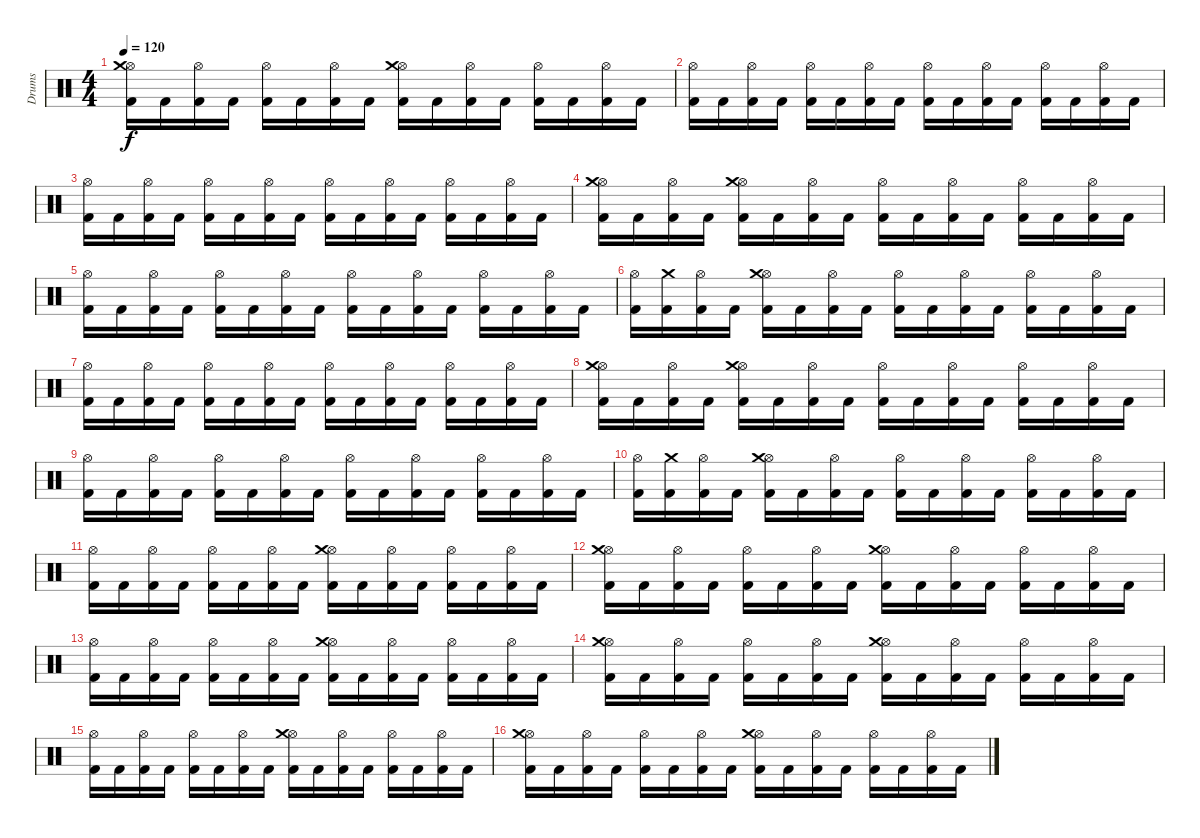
\track ("Drums" "Drums") {instrument percussion}
\staff {score}
\articulation defaults
\ts (4 4)
\tempo 120
\clef neutral
\ks c
("Kick (hit) 2" "Hi-Hat (open)" "Crash medium (hit)").16{dy f} "Kick (hit) 2".16 ("Kick (hit) 2" "Hi-Hat (open)").16 "Kick (hit) 2".16 ("Kick (hit) 2" "Hi-Hat (open)").16 "Kick (hit) 2".16 ("Kick (hit) 2" "Hi-Hat (open)").16 "Kick (hit) 2".16 ("Kick (hit) 2" "Hi-Hat (open)" "Crash medium (hit)").16 "Kick (hit) 2".16 ("Kick (hit) 2" "Hi-Hat (open)").16 "Kick (hit) 2".16 ("Kick (hit) 2" "Hi-Hat (open)").16 "Kick (hit) 2".16 ("Kick (hit) 2" "Hi-Hat (open)").16 "Kick (hit) 2".16 |
("Kick (hit) 2" "Hi-Hat (open)").16 "Kick (hit) 2".16 ("Kick (hit) 2" "Hi-Hat (open)").16 "Kick (hit) 2".16 ("Kick (hit) 2" "Hi-Hat (open)").16 "Kick (hit) 2".16 ("Kick (hit) 2" "Hi-Hat (open)").16 "Kick (hit) 2".16 ("Kick (hit) 2" "Hi-Hat (open)").16 "Kick (hit) 2".16 ("Kick (hit) 2" "Hi-Hat (open)").16 "Kick (hit) 2".16 ("Kick (hit) 2" "Hi-Hat (open)").16 "Kick (hit) 2".16 ("Kick (hit) 2" "Hi-Hat (open)").16 "Kick (hit) 2".16 |
("Kick (hit) 2" "Hi-Hat (open)").16 "Kick (hit) 2".16 ("Kick (hit) 2" "Hi-Hat (open)").16 "Kick (hit) 2".16 ("Kick (hit) 2" "Hi-Hat (open)").16 "Kick (hit) 2".16 ("Kick (hit) 2" "Hi-Hat (open)").16 "Kick (hit) 2".16 ("Kick (hit) 2" "Hi-Hat (open)").16 "Kick (hit) 2".16 ("Kick (hit) 2" "Hi-Hat (open)").16 "Kick (hit) 2".16 ("Kick (hit) 2" "Hi-Hat (open)").16 "Kick (hit) 2".16 ("Kick (hit) 2" "Hi-Hat (open)").16 "Kick (hit) 2".16 |
("Kick (hit) 2" "Hi-Hat (open)" "Crash medium (hit)").16 "Kick (hit) 2".16 ("Kick (hit) 2" "Hi-Hat (open)").16 "Kick (hit) 2".16 ("Kick (hit) 2" "Hi-Hat (open)" "Crash medium (hit)").16 "Kick (hit) 2".16 ("Kick (hit) 2" "Hi-Hat (open)").16 "Kick (hit) 2".16 ("Kick (hit) 2" "Hi-Hat (open)").16 "Kick (hit) 2".16 ("Kick (hit) 2" "Hi-Hat (open)").16 "Kick (hit) 2".16 ("Kick (hit) 2" "Hi-Hat (open)").16 "Kick (hit) 2".16 ("Kick (hit) 2" "Hi-Hat (open)").16 "Kick (hit) 2".16 |
("Kick (hit) 2" "Hi-Hat (open)").16 "Kick (hit) 2".16 ("Kick (hit) 2" "Hi-Hat (open)").16 "Kick (hit) 2".16 ("Kick (hit) 2" "Hi-Hat (open)").16 "Kick (hit) 2".16 ("Kick (hit) 2" "Hi-Hat (open)").16 "Kick (hit) 2".16 ("Kick (hit) 2" "Hi-Hat (open)").16 "Kick (hit) 2".16 ("Kick (hit) 2" "Hi-Hat (open)").16 "Kick (hit) 2".16 ("Kick (hit) 2" "Hi-Hat (open)").16 "Kick (hit) 2".16 ("Kick (hit) 2" "Hi-Hat (open)").16 "Kick (hit) 2".16 |
("Kick (hit) 2" "Hi-Hat (open)").16 ("Kick (hit) 2" "Crash medium (hit)").16 ("Kick (hit) 2" "Hi-Hat (open)").16 "Kick (hit) 2".16 ("Kick (hit) 2" "Hi-Hat (open)" "Crash medium (hit)").16 "Kick (hit) 2".16 ("Kick (hit) 2" "Hi-Hat (open)").16 "Kick (hit) 2".16 ("Kick (hit) 2" "Hi-Hat (open)").16 "Kick (hit) 2".16 ("Kick (hit) 2" "Hi-Hat (open)").16 "Kick (hit) 2".16 ("Kick (hit) 2" "Hi-Hat (open)").16 "Kick (hit) 2".16 ("Kick (hit) 2" "Hi-Hat (open)").16 "Kick (hit) 2".16 |
("Kick (hit) 2" "Hi-Hat (open)").16 "Kick (hit) 2".16 ("Kick (hit) 2" "Hi-Hat (open)").16 "Kick (hit) 2".16 ("Kick (hit) 2" "Hi-Hat (open)").16 "Kick (hit) 2".16 ("Kick (hit) 2" "Hi-Hat (open)").16 "Kick (hit) 2".16 ("Kick (hit) 2" "Hi-Hat (open)").16 "Kick (hit) 2".16 ("Kick (hit) 2" "Hi-Hat (open)").16 "Kick (hit) 2".16 ("Kick (hit) 2" "Hi-Hat (open)").16 "Kick (hit) 2".16 ("Kick (hit) 2" "Hi-Hat (open)").16 "Kick (hit) 2".16 |
("Kick (hit) 2" "Hi-Hat (open)" "Crash medium (hit)").16 "Kick (hit) 2".16 ("Kick (hit) 2" "Hi-Hat (open)").16 "Kick (hit) 2".16 ("Kick (hit) 2" "Hi-Hat (open)" "Crash medium (hit)").16 "Kick (hit) 2".16 ("Kick (hit) 2" "Hi-Hat (open)").16 "Kick (hit) 2".16 ("Kick (hit) 2" "Hi-Hat (open)").16 "Kick (hit) 2".16 ("Kick (hit) 2" "Hi-Hat (open)").16 "Kick (hit) 2".16 ("Kick (hit) 2" "Hi-Hat (open)").16 "Kick (hit) 2".16 ("Kick (hit) 2" "Hi-Hat (open)").16 "Kick (hit) 2".16 |
("Kick (hit) 2" "Hi-Hat (open)").16 "Kick (hit) 2".16 ("Kick (hit) 2" "Hi-Hat (open)").16 "Kick (hit) 2".16 ("Kick (hit) 2" "Hi-Hat (open)").16 "Kick (hit) 2".16 ("Kick (hit) 2" "Hi-Hat (open)").16 "Kick (hit) 2".16 ("Kick (hit) 2" "Hi-Hat (open)").16 "Kick (hit) 2".16 ("Kick (hit) 2" "Hi-Hat (open)").16 "Kick (hit) 2".16 ("Kick (hit) 2" "Hi-Hat (open)").16 "Kick (hit) 2".16 ("Kick (hit) 2" "Hi-Hat (open)").16 "Kick (hit) 2".16 |
("Kick (hit) 2" "Hi-Hat (open)").16 ("Kick (hit) 2" "Crash medium (hit)").16 ("Kick (hit) 2" "Hi-Hat (open)").16 "Kick (hit) 2".16 ("Kick (hit) 2" "Hi-Hat (open)" "Crash medium (hit)").16 "Kick (hit) 2".16 ("Kick (hit) 2" "Hi-Hat (open)").16 "Kick (hit) 2".16 ("Kick (hit) 2" "Hi-Hat (open)").16 "Kick (hit) 2".16 ("Kick (hit) 2" "Hi-Hat (open)").16 "Kick (hit) 2".16 ("Kick (hit) 2" "Hi-Hat (open)").16 "Kick (hit) 2".16 ("Kick (hit) 2" "Hi-Hat (open)").16 "Kick (hit) 2".16 |
("Kick (hit) 2" "Hi-Hat (open)").16 "Kick (hit) 2".16 ("Kick (hit) 2" "Hi-Hat (open)").16 "Kick (hit) 2".16 ("Kick (hit) 2" "Hi-Hat (open)").16 "Kick (hit) 2".16 ("Kick (hit) 2" "Hi-Hat (open)").16 "Kick (hit) 2".16 ("Kick (hit) 2" "Hi-Hat (open)" "Crash medium (hit)").16 "Kick (hit) 2".16 ("Kick (hit) 2" "Hi-Hat (open)").16 "Kick (hit) 2".16 ("Kick (hit) 2" "Hi-Hat (open)").16 "Kick (hit) 2".16 ("Kick (hit) 2" "Hi-Hat (open)").16 "Kick (hit) 2".16 |
("Kick (hit) 2" "Hi-Hat (open)" "Crash medium (hit)").16 "Kick (hit) 2".16 ("Kick (hit) 2" "Hi-Hat (open)").16 "Kick (hit) 2".16 ("Kick (hit) 2" "Hi-Hat (open)").16 "Kick (hit) 2".16 ("Kick (hit) 2" "Hi-Hat (open)").16 "Kick (hit) 2".16 ("Kick (hit) 2" "Hi-Hat (open)" "Crash medium (hit)").16 "Kick (hit) 2".16 ("Kick (hit) 2" "Hi-Hat (open)").16 "Kick (hit) 2".16 ("Kick (hit) 2" "Hi-Hat (open)").16 "Kick (hit) 2".16 ("Kick (hit) 2" "Hi-Hat (open)").16 "Kick (hit) 2".16 |
("Kick (hit) 2" "Hi-Hat (open)").16 "Kick (hit) 2".16 ("Kick (hit) 2" "Hi-Hat (open)").16 "Kick (hit) 2".16 ("Kick (hit) 2" "Hi-Hat (open)").16 "Kick (hit) 2".16 ("Kick (hit) 2" "Hi-Hat (open)").16 "Kick (hit) 2".16 ("Kick (hit) 2" "Hi-Hat (open)" "Crash medium (hit)").16 "Kick (hit) 2".16 ("Kick (hit) 2" "Hi-Hat (open)").16 "Kick (hit) 2".16 ("Kick (hit) 2" "Hi-Hat (open)").16 "Kick (hit) 2".16 ("Kick (hit) 2" "Hi-Hat (open)").16 "Kick (hit) 2".16 |
("Kick (hit) 2" "Hi-Hat (open)" "Crash medium (hit)").16 "Kick (hit) 2".16 ("Kick (hit) 2" "Hi-Hat (open)").16 "Kick (hit) 2".16 ("Kick (hit) 2" "Hi-Hat (open)").16 "Kick (hit) 2".16 ("Kick (hit) 2" "Hi-Hat (open)").16 "Kick (hit) 2".16 ("Kick (hit) 2" "Hi-Hat (open)" "Crash medium (hit)").16 "Kick (hit) 2".16 ("Kick (hit) 2" "Hi-Hat (open)").16 "Kick (hit) 2".16 ("Kick (hit) 2" "Hi-Hat (open)").16 "Kick (hit) 2".16 ("Kick (hit) 2" "Hi-Hat (open)").16 "Kick (hit) 2".16 |
("Kick (hit) 2" "Hi-Hat (open)").16 "Kick (hit) 2".16 ("Kick (hit) 2" "Hi-Hat (open)").16 "Kick (hit) 2".16 ("Kick (hit) 2" "Hi-Hat (open)").16 "Kick (hit) 2".16 ("Kick (hit) 2" "Hi-Hat (open)").16 "Kick (hit) 2".16 ("Kick (hit) 2" "Hi-Hat (open)" "Crash medium (hit)").16 "Kick (hit) 2".16 ("Kick (hit) 2" "Hi-Hat (open)").16 "Kick (hit) 2".16 ("Kick (hit) 2" "Hi-Hat (open)").16 "Kick (hit) 2".16 ("Kick (hit) 2" "Hi-Hat (open)").16 "Kick (hit) 2".16 |
("Kick (hit) 2" "Hi-Hat (open)" "Crash medium (hit)").16 "Kick (hit) 2".16 ("Kick (hit) 2" "Hi-Hat (open)").16 "Kick (hit) 2".16 ("Kick (hit) 2" "Hi-Hat (open)").16 "Kick (hit) 2".16 ("Kick (hit) 2" "Hi-Hat (open)").16 "Kick (hit) 2".16 ("Kick (hit) 2" "Hi-Hat (open)" "Crash medium (hit)").16 "Kick (hit) 2".16 ("Kick (hit) 2" "Hi-Hat (open)").16 "Kick (hit) 2".16 ("Kick (hit) 2" "Hi-Hat (open)").16 "Kick (hit) 2".16 ("Kick (hit) 2" "Hi-Hat (open)").16 "Kick (hit) 2".16
